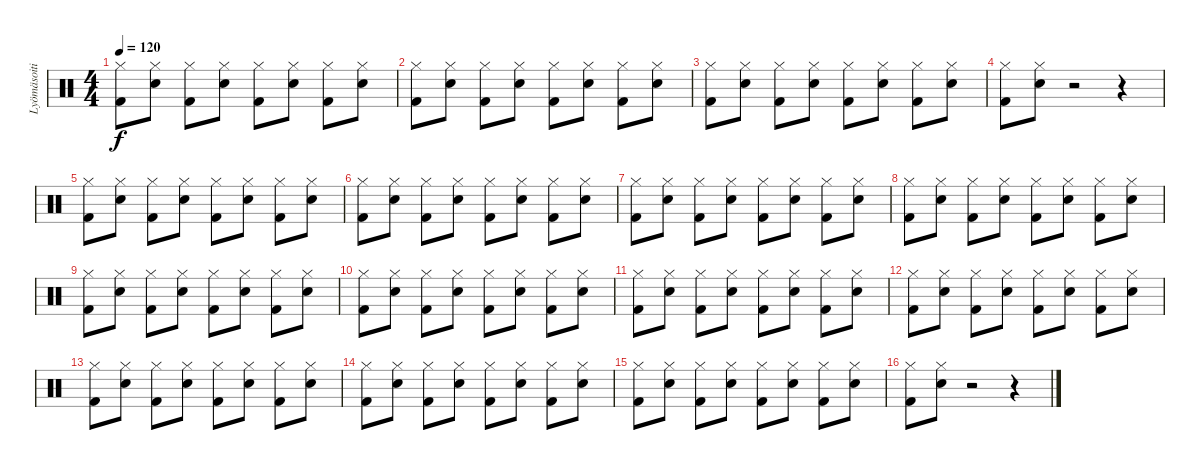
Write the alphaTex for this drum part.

\track ("Lyömäsoitin" "Lyömäsoiti") {instrument percussion}
\staff {score}
\articulation defaults
\ts (4 4)
\tempo 120
\clef neutral
\ks c
("Hi-Hat (closed)" "Kick (hit) 2").8{dy f} ("Hi-Hat (closed)" "Snare (hit) 2").8 ("Hi-Hat (closed)" "Kick (hit) 2").8 ("Hi-Hat (closed)" "Snare (hit) 2").8 ("Hi-Hat (closed)" "Kick (hit) 2").8 ("Hi-Hat (closed)" "Snare (hit) 2").8 ("Hi-Hat (closed)" "Kick (hit) 2").8 ("Hi-Hat (closed)" "Snare (hit) 2").8 |
("Hi-Hat (closed)" "Kick (hit) 2").8 ("Hi-Hat (closed)" "Snare (hit) 2").8 ("Hi-Hat (closed)" "Kick (hit) 2").8 ("Hi-Hat (closed)" "Snare (hit) 2").8 ("Hi-Hat (closed)" "Kick (hit) 2").8 ("Hi-Hat (closed)" "Snare (hit) 2").8 ("Hi-Hat (closed)" "Kick (hit) 2").8 ("Hi-Hat (closed)" "Snare (hit) 2").8 |
("Hi-Hat (closed)" "Kick (hit) 2").8 ("Hi-Hat (closed)" "Snare (hit) 2").8 ("Hi-Hat (closed)" "Kick (hit) 2").8 ("Hi-Hat (closed)" "Snare (hit) 2").8 ("Hi-Hat (closed)" "Kick (hit) 2").8 ("Hi-Hat (closed)" "Snare (hit) 2").8 ("Hi-Hat (closed)" "Kick (hit) 2").8 ("Hi-Hat (closed)" "Snare (hit) 2").8 |
("Hi-Hat (closed)" "Kick (hit) 2").8 ("Hi-Hat (closed)" "Snare (hit) 2").8 r.2 r.4 |
("Hi-Hat (closed)" "Kick (hit) 2").8 ("Hi-Hat (closed)" "Snare (hit) 2").8 ("Hi-Hat (closed)" "Kick (hit) 2").8 ("Hi-Hat (closed)" "Snare (hit) 2").8 ("Hi-Hat (closed)" "Kick (hit) 2").8 ("Hi-Hat (closed)" "Snare (hit) 2").8 ("Hi-Hat (closed)" "Kick (hit) 2").8 ("Hi-Hat (closed)" "Snare (hit) 2").8 |
("Hi-Hat (closed)" "Kick (hit) 2").8 ("Hi-Hat (closed)" "Snare (hit) 2").8 ("Hi-Hat (closed)" "Kick (hit) 2").8 ("Hi-Hat (closed)" "Snare (hit) 2").8 ("Hi-Hat (closed)" "Kick (hit) 2").8 ("Hi-Hat (closed)" "Snare (hit) 2").8 ("Hi-Hat (closed)" "Kick (hit) 2").8 ("Hi-Hat (closed)" "Snare (hit) 2").8 |
("Hi-Hat (closed)" "Kick (hit) 2").8 ("Hi-Hat (closed)" "Snare (hit) 2").8 ("Hi-Hat (closed)" "Kick (hit) 2").8 ("Hi-Hat (closed)" "Snare (hit) 2").8 ("Hi-Hat (closed)" "Kick (hit) 2").8 ("Hi-Hat (closed)" "Snare (hit) 2").8 ("Hi-Hat (closed)" "Kick (hit) 2").8 ("Hi-Hat (closed)" "Snare (hit) 2").8 |
("Hi-Hat (closed)" "Kick (hit) 2").8 ("Hi-Hat (closed)" "Snare (hit) 2").8 ("Hi-Hat (closed)" "Kick (hit) 2").8 ("Hi-Hat (closed)" "Snare (hit) 2").8 ("Hi-Hat (closed)" "Kick (hit) 2").8 ("Hi-Hat (closed)" "Snare (hit) 2").8 ("Hi-Hat (closed)" "Kick (hit) 2").8 ("Hi-Hat (closed)" "Snare (hit) 2").8 |
("Hi-Hat (closed)" "Kick (hit) 2").8 ("Hi-Hat (closed)" "Snare (hit) 2").8 ("Hi-Hat (closed)" "Kick (hit) 2").8 ("Hi-Hat (closed)" "Snare (hit) 2").8 ("Hi-Hat (closed)" "Kick (hit) 2").8 ("Hi-Hat (closed)" "Snare (hit) 2").8 ("Hi-Hat (closed)" "Kick (hit) 2").8 ("Hi-Hat (closed)" "Snare (hit) 2").8 |
("Hi-Hat (closed)" "Kick (hit) 2").8 ("Hi-Hat (closed)" "Snare (hit) 2").8 ("Hi-Hat (closed)" "Kick (hit) 2").8 ("Hi-Hat (closed)" "Snare (hit) 2").8 ("Hi-Hat (closed)" "Kick (hit) 2").8 ("Hi-Hat (closed)" "Snare (hit) 2").8 ("Hi-Hat (closed)" "Kick (hit) 2").8 ("Hi-Hat (closed)" "Snare (hit) 2").8 |
("Hi-Hat (closed)" "Kick (hit) 2").8 ("Hi-Hat (closed)" "Snare (hit) 2").8 ("Hi-Hat (closed)" "Kick (hit) 2").8 ("Hi-Hat (closed)" "Snare (hit) 2").8 ("Hi-Hat (closed)" "Kick (hit) 2").8 ("Hi-Hat (closed)" "Snare (hit) 2").8 ("Hi-Hat (closed)" "Kick (hit) 2").8 ("Hi-Hat (closed)" "Snare (hit) 2").8 |
("Hi-Hat (closed)" "Kick (hit) 2").8 ("Hi-Hat (closed)" "Snare (hit) 2").8 ("Hi-Hat (closed)" "Kick (hit) 2").8 ("Hi-Hat (closed)" "Snare (hit) 2").8 ("Hi-Hat (closed)" "Kick (hit) 2").8 ("Hi-Hat (closed)" "Snare (hit) 2").8 ("Hi-Hat (closed)" "Kick (hit) 2").8 ("Hi-Hat (closed)" "Snare (hit) 2").8 |
("Hi-Hat (closed)" "Kick (hit) 2").8 ("Hi-Hat (closed)" "Snare (hit) 2").8 ("Hi-Hat (closed)" "Kick (hit) 2").8 ("Hi-Hat (closed)" "Snare (hit) 2").8 ("Hi-Hat (closed)" "Kick (hit) 2").8 ("Hi-Hat (closed)" "Snare (hit) 2").8 ("Hi-Hat (closed)" "Kick (hit) 2").8 ("Hi-Hat (closed)" "Snare (hit) 2").8 |
("Hi-Hat (closed)" "Kick (hit) 2").8 ("Hi-Hat (closed)" "Snare (hit) 2").8 ("Hi-Hat (closed)" "Kick (hit) 2").8 ("Hi-Hat (closed)" "Snare (hit) 2").8 ("Hi-Hat (closed)" "Kick (hit) 2").8 ("Hi-Hat (closed)" "Snare (hit) 2").8 ("Hi-Hat (closed)" "Kick (hit) 2").8 ("Hi-Hat (closed)" "Snare (hit) 2").8 |
("Hi-Hat (closed)" "Kick (hit) 2").8 ("Hi-Hat (closed)" "Snare (hit) 2").8 ("Hi-Hat (closed)" "Kick (hit) 2").8 ("Hi-Hat (closed)" "Snare (hit) 2").8 ("Hi-Hat (closed)" "Kick (hit) 2").8 ("Hi-Hat (closed)" "Snare (hit) 2").8 ("Hi-Hat (closed)" "Kick (hit) 2").8 ("Hi-Hat (closed)" "Snare (hit) 2").8 |
("Hi-Hat (closed)" "Kick (hit) 2").8 ("Hi-Hat (closed)" "Snare (hit) 2").8 r.2 r.4
